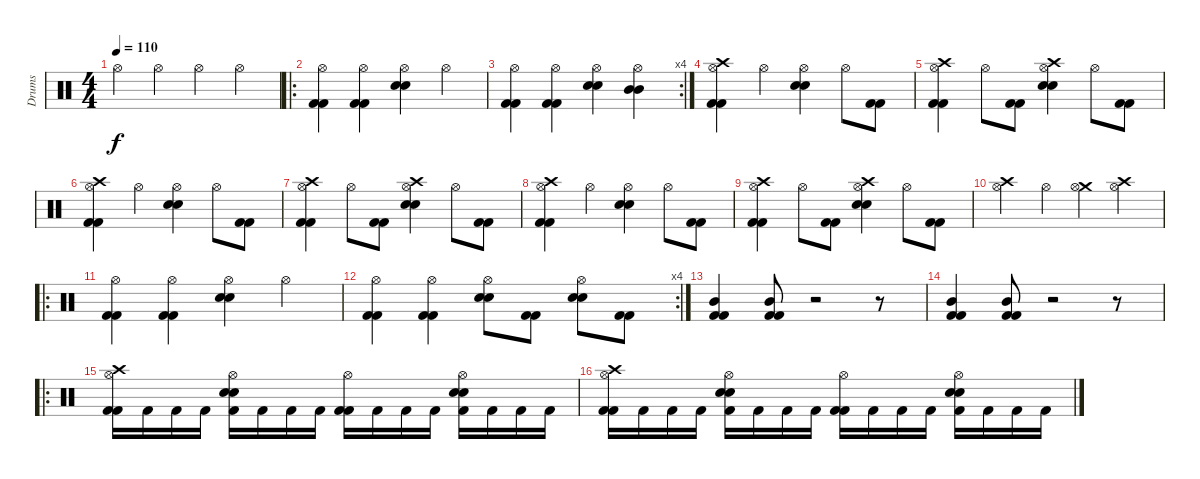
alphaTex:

\track ("Drums" "Drums") {instrument percussion}
\staff {score}
\articulation defaults
\ts (4 4)
\tempo 110
\clef neutral
\ks c "Hi-Hat (open)".4{dy f} "Hi-Hat (open)".4 "Hi-Hat (open)".4 "Hi-Hat (open)".4
|
\ro
("Kick (hit) 2" "Kick (hit) 2" "Hi-Hat (open)").4 ("Kick (hit) 2" "Kick (hit) 2" "Hi-Hat (open)").4 ("Electric Snare (hit)" "Electric Snare (hit)" "Hi-Hat (open)").4 "Hi-Hat (open)".4 |
\rc 4
("Kick (hit) 2" "Kick (hit) 2" "Hi-Hat (open)").4 ("Kick (hit) 2" "Kick (hit) 2" "Hi-Hat (open)").4 ("Electric Snare (hit)" "Electric Snare (hit)" "Hi-Hat (open)").4 ("Mid Tom (hit)" "Mid Tom (hit)" "Hi-Hat (open)").4 |
("Kick (hit) 2" "Kick (hit) 2" "Crash high (hit)" "Hi-Hat (open)").4 "Hi-Hat (open)".4 ("Electric Snare (hit)" "Electric Snare (hit)" "Hi-Hat (open)").4 "Hi-Hat (open)".8 ("Kick (hit) 2" "Kick (hit) 2").8 |
("Kick (hit) 2" "Kick (hit) 2" "Crash high (hit)" "Hi-Hat (open)").4 "Hi-Hat (open)".8 ("Kick (hit) 2" "Kick (hit) 2").8 ("Electric Snare (hit)" "Electric Snare (hit)" "Crash high (hit)" "Hi-Hat (open)").4 "Hi-Hat (open)".8 ("Kick (hit) 2" "Kick (hit) 2").8 |
("Kick (hit) 2" "Kick (hit) 2" "Crash high (hit)" "Hi-Hat (open)").4 "Hi-Hat (open)".4 ("Electric Snare (hit)" "Electric Snare (hit)" "Hi-Hat (open)").4 "Hi-Hat (open)".8 ("Kick (hit) 2" "Kick (hit) 2").8 |
("Kick (hit) 2" "Kick (hit) 2" "Crash high (hit)" "Hi-Hat (open)").4 "Hi-Hat (open)".8 ("Kick (hit) 2" "Kick (hit) 2").8 ("Electric Snare (hit)" "Electric Snare (hit)" "Crash high (hit)" "Hi-Hat (open)").4 "Hi-Hat (open)".8 ("Kick (hit) 2" "Kick (hit) 2").8 |
("Kick (hit) 2" "Kick (hit) 2" "Crash high (hit)" "Hi-Hat (open)").4 "Hi-Hat (open)".4 ("Electric Snare (hit)" "Electric Snare (hit)" "Hi-Hat (open)").4 "Hi-Hat (open)".8 ("Kick (hit) 2" "Kick (hit) 2").8 |
("Kick (hit) 2" "Kick (hit) 2" "Crash high (hit)" "Hi-Hat (open)").4 "Hi-Hat (open)".8 ("Kick (hit) 2" "Kick (hit) 2").8 ("Electric Snare (hit)" "Electric Snare (hit)" "Crash high (hit)" "Hi-Hat (open)").4 "Hi-Hat (open)".8 ("Kick (hit) 2" "Kick (hit) 2").8 |
("Crash high (hit)" "Hi-Hat (open)").4 "Hi-Hat (open)".4 ("Crash medium (hit)" "Hi-Hat (open)").4 ("Crash high (hit)" "Hi-Hat (open)").4 |
\ro
("Kick (hit) 2" "Kick (hit) 2" "Hi-Hat (open)").4 ("Kick (hit) 2" "Kick (hit) 2" "Hi-Hat (open)").4 ("Electric Snare (hit)" "Electric Snare (hit)" "Hi-Hat (open)").4 "Hi-Hat (open)".4 |
\rc 4
("Kick (hit) 2" "Kick (hit) 2" "Hi-Hat (open)").4 ("Kick (hit) 2" "Kick (hit) 2" "Hi-Hat (open)").4 ("Electric Snare (hit)" "Electric Snare (hit)" "Hi-Hat (open)").8 ("Kick (hit) 2" "Kick (hit) 2").8 ("Electric Snare (hit)" "Electric Snare (hit)" "Hi-Hat (open)").8 ("Kick (hit) 2" "Kick (hit) 2").8 |
("Kick (hit) 2" "Kick (hit) 2" "Mid Tom (hit)").4 ("Kick (hit) 2" "Kick (hit) 2" "Mid Tom (hit)").8 r.2 r.8 |
("Kick (hit) 2" "Kick (hit) 2" "Mid Tom (hit)").4 ("Kick (hit) 2" "Kick (hit) 2" "Mid Tom (hit)").8 r.2 r.8 |
\ro
("Kick (hit) 2" "Kick (hit) 2" "Crash high (hit)" "Hi-Hat (open)").16 "Kick (hit) 2".16 "Kick (hit) 2".16 "Kick (hit) 2".16 ("Kick (hit) 2" "Electric Snare (hit)" "Electric Snare (hit)" "Hi-Hat (open)").16 "Kick (hit) 2".16 "Kick (hit) 2".16 "Kick (hit) 2".16 ("Kick (hit) 2" "Kick (hit) 2" "Hi-Hat (open)").16 "Kick (hit) 2".16 "Kick (hit) 2".16 "Kick (hit) 2".16 ("Kick (hit) 2" "Electric Snare (hit)" "Electric Snare (hit)" "Hi-Hat (open)").16 "Kick (hit) 2".16 "Kick (hit) 2".16 "Kick (hit) 2".16 |
("Kick (hit) 2" "Kick (hit) 2" "Crash high (hit)" "Hi-Hat (open)").16 "Kick (hit) 2".16 "Kick (hit) 2".16 "Kick (hit) 2".16 ("Kick (hit) 2" "Electric Snare (hit)" "Electric Snare (hit)" "Hi-Hat (open)").16 "Kick (hit) 2".16 "Kick (hit) 2".16 "Kick (hit) 2".16 ("Kick (hit) 2" "Kick (hit) 2" "Hi-Hat (open)").16 "Kick (hit) 2".16 "Kick (hit) 2".16 "Kick (hit) 2".16 ("Kick (hit) 2" "Electric Snare (hit)" "Electric Snare (hit)" "Hi-Hat (open)").16 "Kick (hit) 2".16 "Kick (hit) 2".16 "Kick (hit) 2".16
